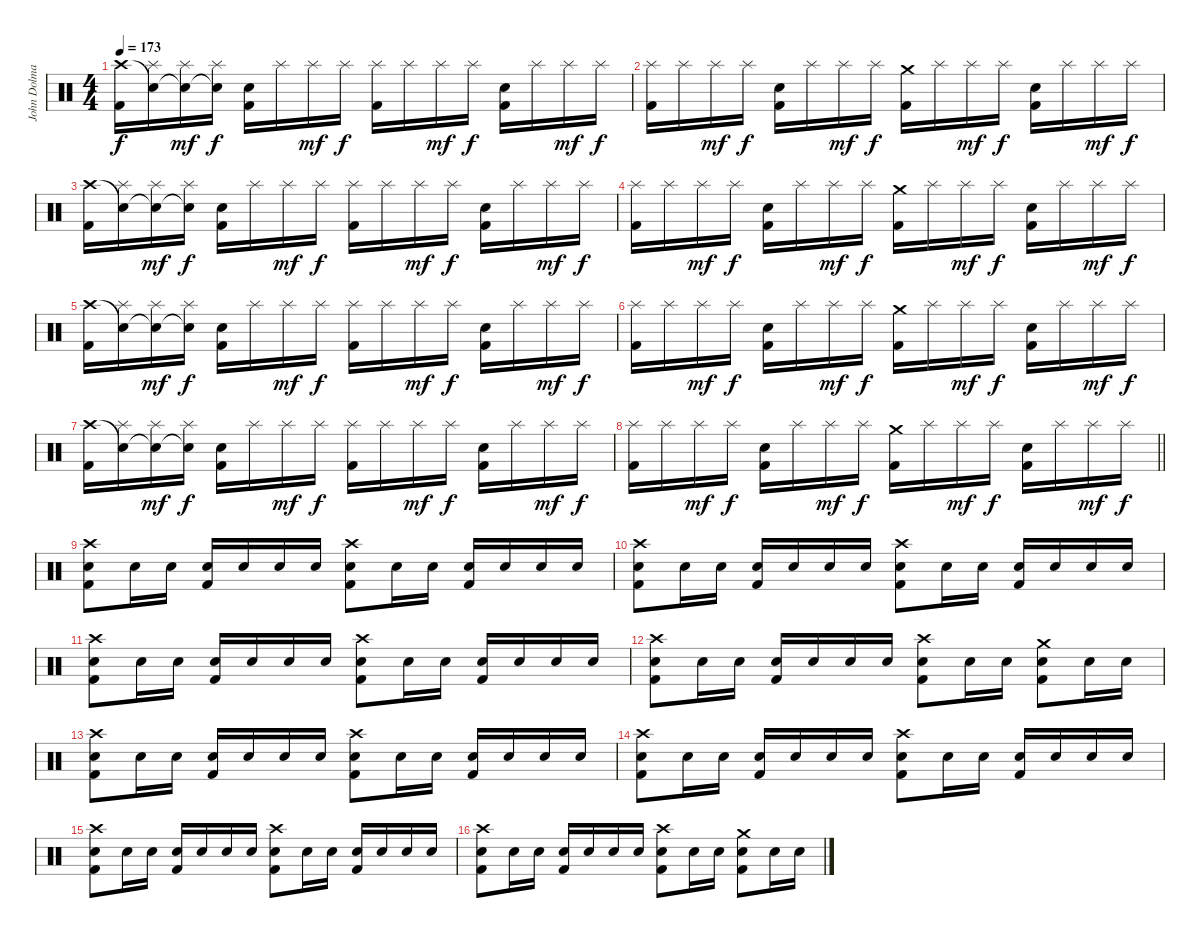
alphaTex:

\track ("John Dolmayan" "John Dolma") {instrument percussion}
\staff {score}
\articulation defaults
\ts (4 4)
\tempo 173
\clef neutral
\ks c
("Crash high (hit)" "Kick (hit) 2").16{dy f} ("Snare (hit)"{t} "Splash (hit)").16 ("Snare (hit)"{t} "Splash (hit)").16{dy mf} ("Snare (hit)"{t} "Splash (hit)").16{dy f} ("Electric Snare (hit)" "Kick (hit) 2").16 "Splash (hit)".16 "Splash (hit)".16{dy mf} "Splash (hit)".16{dy f} ("Splash (hit)" "Kick (hit) 2").16 "Splash (hit)".16 "Splash (hit)".16{dy mf} "Splash (hit)".16{dy f} ("Electric Snare (hit)" "Kick (hit) 2").16 "Splash (hit)".16 "Splash (hit)".16{dy mf} "Splash (hit)".16{dy f} |
("Splash (hit)" "Kick (hit) 2").16 "Splash (hit)".16 "Splash (hit)".16{dy mf} "Splash (hit)".16{dy f} ("Electric Snare (hit)" "Kick (hit) 2").16 "Splash (hit)".16 "Splash (hit)".16{dy mf} "Splash (hit)".16{dy f} ("Crash medium (hit)" "Kick (hit) 2").16 "Splash (hit)".16 "Splash (hit)".16{dy mf} "Splash (hit)".16{dy f} ("Electric Snare (hit)" "Kick (hit) 2").16 "Splash (hit)".16 "Splash (hit)".16{dy mf} "Splash (hit)".16{dy f} |
("Crash high (hit)" "Kick (hit) 2").16 ("Snare (hit)"{t} "Splash (hit)").16 ("Snare (hit)"{t} "Splash (hit)").16{dy mf} ("Snare (hit)"{t} "Splash (hit)").16{dy f} ("Electric Snare (hit)" "Kick (hit) 2").16 "Splash (hit)".16 "Splash (hit)".16{dy mf} "Splash (hit)".16{dy f} ("Splash (hit)" "Kick (hit) 2").16 "Splash (hit)".16 "Splash (hit)".16{dy mf} "Splash (hit)".16{dy f} ("Electric Snare (hit)" "Kick (hit) 2").16 "Splash (hit)".16 "Splash (hit)".16{dy mf} "Splash (hit)".16{dy f} |
("Splash (hit)" "Kick (hit) 2").16 "Splash (hit)".16 "Splash (hit)".16{dy mf} "Splash (hit)".16{dy f} ("Electric Snare (hit)" "Kick (hit) 2").16 "Splash (hit)".16 "Splash (hit)".16{dy mf} "Splash (hit)".16{dy f} ("Crash medium (hit)" "Kick (hit) 2").16 "Splash (hit)".16 "Splash (hit)".16{dy mf} "Splash (hit)".16{dy f} ("Electric Snare (hit)" "Kick (hit) 2").16 "Splash (hit)".16 "Splash (hit)".16{dy mf} "Splash (hit)".16{dy f} |
("Crash high (hit)" "Kick (hit) 2").16 ("Snare (hit)"{t} "Splash (hit)").16 ("Snare (hit)"{t} "Splash (hit)").16{dy mf} ("Snare (hit)"{t} "Splash (hit)").16{dy f} ("Electric Snare (hit)" "Kick (hit) 2").16 "Splash (hit)".16 "Splash (hit)".16{dy mf} "Splash (hit)".16{dy f} ("Splash (hit)" "Kick (hit) 2").16 "Splash (hit)".16 "Splash (hit)".16{dy mf} "Splash (hit)".16{dy f} ("Electric Snare (hit)" "Kick (hit) 2").16 "Splash (hit)".16 "Splash (hit)".16{dy mf} "Splash (hit)".16{dy f} |
("Splash (hit)" "Kick (hit) 2").16 "Splash (hit)".16 "Splash (hit)".16{dy mf} "Splash (hit)".16{dy f} ("Electric Snare (hit)" "Kick (hit) 2").16 "Splash (hit)".16 "Splash (hit)".16{dy mf} "Splash (hit)".16{dy f} ("Crash medium (hit)" "Kick (hit) 2").16 "Splash (hit)".16 "Splash (hit)".16{dy mf} "Splash (hit)".16{dy f} ("Electric Snare (hit)" "Kick (hit) 2").16 "Splash (hit)".16 "Splash (hit)".16{dy mf} "Splash (hit)".16{dy f} |
("Crash high (hit)" "Kick (hit) 2").16 ("Snare (hit)"{t} "Splash (hit)").16 ("Snare (hit)"{t} "Splash (hit)").16{dy mf} ("Snare (hit)"{t} "Splash (hit)").16{dy f} ("Electric Snare (hit)" "Kick (hit) 2").16 "Splash (hit)".16 "Splash (hit)".16{dy mf} "Splash (hit)".16{dy f} ("Splash (hit)" "Kick (hit) 2").16 "Splash (hit)".16 "Splash (hit)".16{dy mf} "Splash (hit)".16{dy f} ("Electric Snare (hit)" "Kick (hit) 2").16 "Splash (hit)".16 "Splash (hit)".16{dy mf} "Splash (hit)".16{dy f} |
\barLineRight lightlight
("Splash (hit)" "Kick (hit) 2").16 "Splash (hit)".16 "Splash (hit)".16{dy mf} "Splash (hit)".16{dy f} ("Electric Snare (hit)" "Kick (hit) 2").16 "Splash (hit)".16 "Splash (hit)".16{dy mf} "Splash (hit)".16{dy f} ("Crash medium (hit)" "Kick (hit) 2").16 "Splash (hit)".16 "Splash (hit)".16{dy mf} "Splash (hit)".16{dy f} ("Electric Snare (hit)" "Kick (hit) 2").16 "Splash (hit)".16 "Splash (hit)".16{dy mf} "Splash (hit)".16{dy f} |
("Crash high (hit)" "Electric Snare (hit)" "Kick (hit) 2").8 "Electric Snare (hit)".16 "Electric Snare (hit)".16 ("Electric Snare (hit)" "Kick (hit) 2").16 "Electric Snare (hit)".16 "Electric Snare (hit)".16 "Electric Snare (hit)".16 ("Crash high (hit)" "Electric Snare (hit)" "Kick (hit) 2").8 "Electric Snare (hit)".16 "Electric Snare (hit)".16 ("Electric Snare (hit)" "Kick (hit) 2").16 "Electric Snare (hit)".16 "Electric Snare (hit)".16 "Electric Snare (hit)".16 |
("Crash high (hit)" "Electric Snare (hit)" "Kick (hit) 2").8 "Electric Snare (hit)".16 "Electric Snare (hit)".16 ("Electric Snare (hit)" "Kick (hit) 2").16 "Electric Snare (hit)".16 "Electric Snare (hit)".16 "Electric Snare (hit)".16 ("Crash high (hit)" "Electric Snare (hit)" "Kick (hit) 2").8 "Electric Snare (hit)".16 "Electric Snare (hit)".16 ("Electric Snare (hit)" "Kick (hit) 2").16 "Electric Snare (hit)".16 "Electric Snare (hit)".16 "Electric Snare (hit)".16 |
("Crash high (hit)" "Electric Snare (hit)" "Kick (hit) 2").8 "Electric Snare (hit)".16 "Electric Snare (hit)".16 ("Electric Snare (hit)" "Kick (hit) 2").16 "Electric Snare (hit)".16 "Electric Snare (hit)".16 "Electric Snare (hit)".16 ("Crash high (hit)" "Electric Snare (hit)" "Kick (hit) 2").8 "Electric Snare (hit)".16 "Electric Snare (hit)".16 ("Electric Snare (hit)" "Kick (hit) 2").16 "Electric Snare (hit)".16 "Electric Snare (hit)".16 "Electric Snare (hit)".16 |
("Crash high (hit)" "Electric Snare (hit)" "Kick (hit) 2").8 "Electric Snare (hit)".16 "Electric Snare (hit)".16 ("Electric Snare (hit)" "Kick (hit) 2").16 "Electric Snare (hit)".16 "Electric Snare (hit)".16 "Electric Snare (hit)".16 ("Crash high (hit)" "Electric Snare (hit)" "Kick (hit) 2").8 "Electric Snare (hit)".16 "Electric Snare (hit)".16 ("Crash medium (hit)" "Electric Snare (hit)" "Kick (hit) 2").8 "Electric Snare (hit)".16 "Electric Snare (hit)".16 |
("Crash high (hit)" "Electric Snare (hit)" "Kick (hit) 2").8 "Electric Snare (hit)".16 "Electric Snare (hit)".16 ("Electric Snare (hit)" "Kick (hit) 2").16 "Electric Snare (hit)".16 "Electric Snare (hit)".16 "Electric Snare (hit)".16 ("Crash high (hit)" "Electric Snare (hit)" "Kick (hit) 2").8 "Electric Snare (hit)".16 "Electric Snare (hit)".16 ("Electric Snare (hit)" "Kick (hit) 2").16 "Electric Snare (hit)".16 "Electric Snare (hit)".16 "Electric Snare (hit)".16 |
("Crash high (hit)" "Electric Snare (hit)" "Kick (hit) 2").8 "Electric Snare (hit)".16 "Electric Snare (hit)".16 ("Electric Snare (hit)" "Kick (hit) 2").16 "Electric Snare (hit)".16 "Electric Snare (hit)".16 "Electric Snare (hit)".16 ("Crash high (hit)" "Electric Snare (hit)" "Kick (hit) 2").8 "Electric Snare (hit)".16 "Electric Snare (hit)".16 ("Electric Snare (hit)" "Kick (hit) 2").16 "Electric Snare (hit)".16 "Electric Snare (hit)".16 "Electric Snare (hit)".16 |
("Crash high (hit)" "Electric Snare (hit)" "Kick (hit) 2").8 "Electric Snare (hit)".16 "Electric Snare (hit)".16 ("Electric Snare (hit)" "Kick (hit) 2").16 "Electric Snare (hit)".16 "Electric Snare (hit)".16 "Electric Snare (hit)".16 ("Crash high (hit)" "Electric Snare (hit)" "Kick (hit) 2").8 "Electric Snare (hit)".16 "Electric Snare (hit)".16 ("Electric Snare (hit)" "Kick (hit) 2").16 "Electric Snare (hit)".16 "Electric Snare (hit)".16 "Electric Snare (hit)".16 |
("Crash high (hit)" "Electric Snare (hit)" "Kick (hit) 2").8 "Electric Snare (hit)".16 "Electric Snare (hit)".16 ("Electric Snare (hit)" "Kick (hit) 2").16 "Electric Snare (hit)".16 "Electric Snare (hit)".16 "Electric Snare (hit)".16 ("Crash high (hit)" "Electric Snare (hit)" "Kick (hit) 2").8 "Electric Snare (hit)".16 "Electric Snare (hit)".16 ("Crash medium (hit)" "Electric Snare (hit)" "Kick (hit) 2").8 "Electric Snare (hit)".16 "Electric Snare (hit)".16
